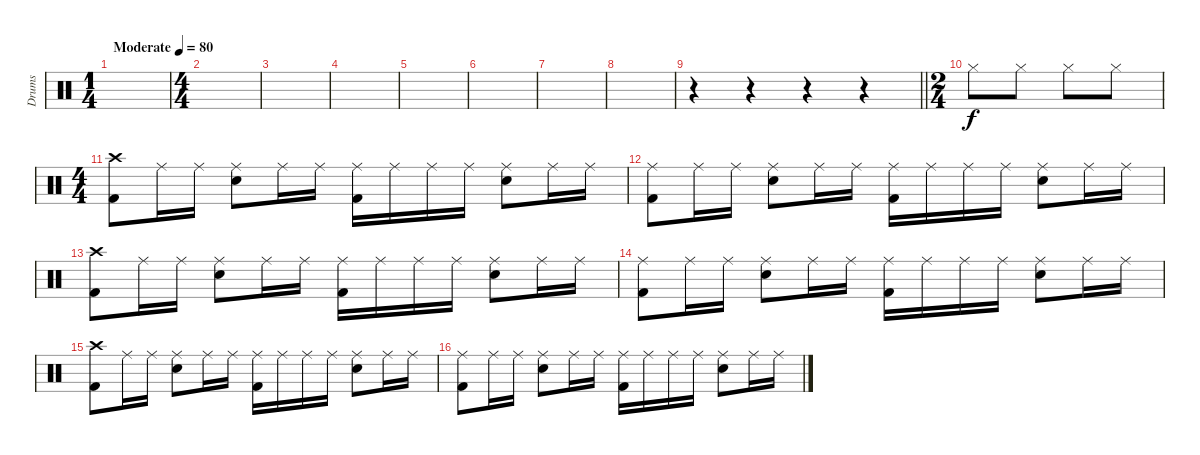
\track ("Drums" "Drums") {instrument percussion}
\staff {score}
\articulation defaults
\ts (1 4)
\section ("" "")
\tempo (80 "Moderate")
\clef neutral
\ks c
|
\ts (4 4)
|
|
|
|
|
|
|
\barLineRight lightlight
r.4 r.4 r.4 r.4 |
\ts (2 4)
\section ("" "")
"Hi-Hat (closed)".8 "Hi-Hat (closed)".8 "Hi-Hat (closed)".8 "Hi-Hat (closed)".8 |
\ts (4 4)
("Kick (hit) 2" "Crash high (hit)").8 "Ride (middle)".16 "Ride (middle)".16 ("Electric Snare (hit)" "Ride (middle)").8 "Ride (middle)".16 "Ride (middle)".16 ("Kick (hit) 2" "Ride (middle)").16 "Ride (middle)".16 "Ride (middle)".16 "Ride (middle)".16 ("Electric Snare (hit)" "Ride (middle)").8 "Ride (middle)".16 "Ride (middle)".16 |
("Kick (hit) 2" "Ride (middle)").8 "Ride (middle)".16 "Ride (middle)".16 ("Electric Snare (hit)" "Ride (middle)").8 "Ride (middle)".16 "Ride (middle)".16 ("Kick (hit) 2" "Ride (middle)").16 "Ride (middle)".16 "Ride (middle)".16 "Ride (middle)".16 ("Electric Snare (hit)" "Ride (middle)").8 "Ride (middle)".16 "Ride (middle)".16 |
("Kick (hit) 2" "Crash high (hit)").8 "Ride (middle)".16 "Ride (middle)".16 ("Electric Snare (hit)" "Ride (middle)").8 "Ride (middle)".16 "Ride (middle)".16 ("Kick (hit) 2" "Ride (middle)").16 "Ride (middle)".16 "Ride (middle)".16 "Ride (middle)".16 ("Electric Snare (hit)" "Ride (middle)").8 "Ride (middle)".16 "Ride (middle)".16 |
("Kick (hit) 2" "Ride (middle)").8 "Ride (middle)".16 "Ride (middle)".16 ("Electric Snare (hit)" "Ride (middle)").8 "Ride (middle)".16 "Ride (middle)".16 ("Kick (hit) 2" "Ride (middle)").16 "Ride (middle)".16 "Ride (middle)".16 "Ride (middle)".16 ("Electric Snare (hit)" "Ride (middle)").8 "Ride (middle)".16 "Ride (middle)".16 |
("Kick (hit) 2" "Crash high (hit)").8 "Ride (middle)".16 "Ride (middle)".16 ("Electric Snare (hit)" "Ride (middle)").8 "Ride (middle)".16 "Ride (middle)".16 ("Kick (hit) 2" "Ride (middle)").16 "Ride (middle)".16 "Ride (middle)".16 "Ride (middle)".16 ("Electric Snare (hit)" "Ride (middle)").8 "Ride (middle)".16 "Ride (middle)".16 |
("Kick (hit) 2" "Ride (middle)").8 "Ride (middle)".16 "Ride (middle)".16 ("Electric Snare (hit)" "Ride (middle)").8 "Ride (middle)".16 "Ride (middle)".16 ("Kick (hit) 2" "Ride (middle)").16 "Ride (middle)".16 "Ride (middle)".16 "Ride (middle)".16 ("Electric Snare (hit)" "Ride (middle)").8 "Ride (middle)".16 "Ride (middle)".16
